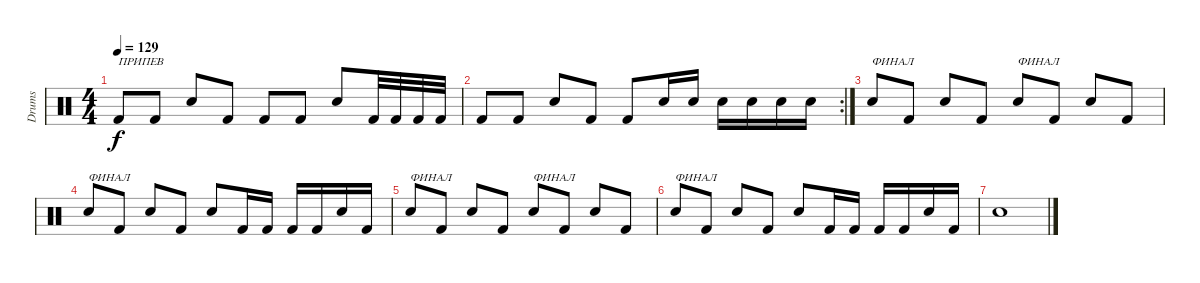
\track ("Drums" "Drums") {instrument percussion}
\staff {score}
\articulation defaults
\ts (4 4)
\tempo 129
\clef neutral
\ks c "Kick (hit) 2".8{txt "ПРИПЕВ" dy f} "Kick (hit) 2".8 "Snare (hit) 2".8 "Kick (hit) 2".8 "Kick (hit) 2".8 "Kick (hit) 2".8 "Snare (hit) 2".8 "Kick (hit) 2".32 "Kick (hit) 2".32 "Kick (hit) 2".32 "Kick (hit) 2".32
|
\rc 2 "Kick (hit) 2".8 "Kick (hit) 2".8 "Snare (hit) 2".8 "Kick (hit) 2".8 "Kick (hit) 2".8 "Snare (hit) 2".16 "Snare (hit) 2".16 "Snare (hit) 2".16 "Snare (hit) 2".16 "Snare (hit) 2".16 "Snare (hit) 2".16
|
"Snare (hit) 2".8{txt "ФИНАЛ"} "Kick (hit) 2".8 "Snare (hit) 2".8 "Kick (hit) 2".8 "Snare (hit) 2".8{txt "ФИНАЛ"} "Kick (hit) 2".8 "Snare (hit) 2".8 "Kick (hit) 2".8 |
"Snare (hit) 2".8{txt "ФИНАЛ"} "Kick (hit) 2".8 "Snare (hit) 2".8 "Kick (hit) 2".8 "Snare (hit) 2".8 "Kick (hit) 2".16 "Kick (hit) 2".16 "Kick (hit) 2".16 "Kick (hit) 2".16 "Snare (hit) 2".16 "Kick (hit) 2".16 |
"Snare (hit) 2".8{txt "ФИНАЛ"} "Kick (hit) 2".8 "Snare (hit) 2".8 "Kick (hit) 2".8 "Snare (hit) 2".8{txt "ФИНАЛ"} "Kick (hit) 2".8 "Snare (hit) 2".8 "Kick (hit) 2".8 |
"Snare (hit) 2".8{txt "ФИНАЛ"} "Kick (hit) 2".8 "Snare (hit) 2".8 "Kick (hit) 2".8 "Snare (hit) 2".8 "Kick (hit) 2".16 "Kick (hit) 2".16 "Kick (hit) 2".16 "Kick (hit) 2".16 "Snare (hit) 2".16 "Kick (hit) 2".16 |
"Snare (hit) 2".1
